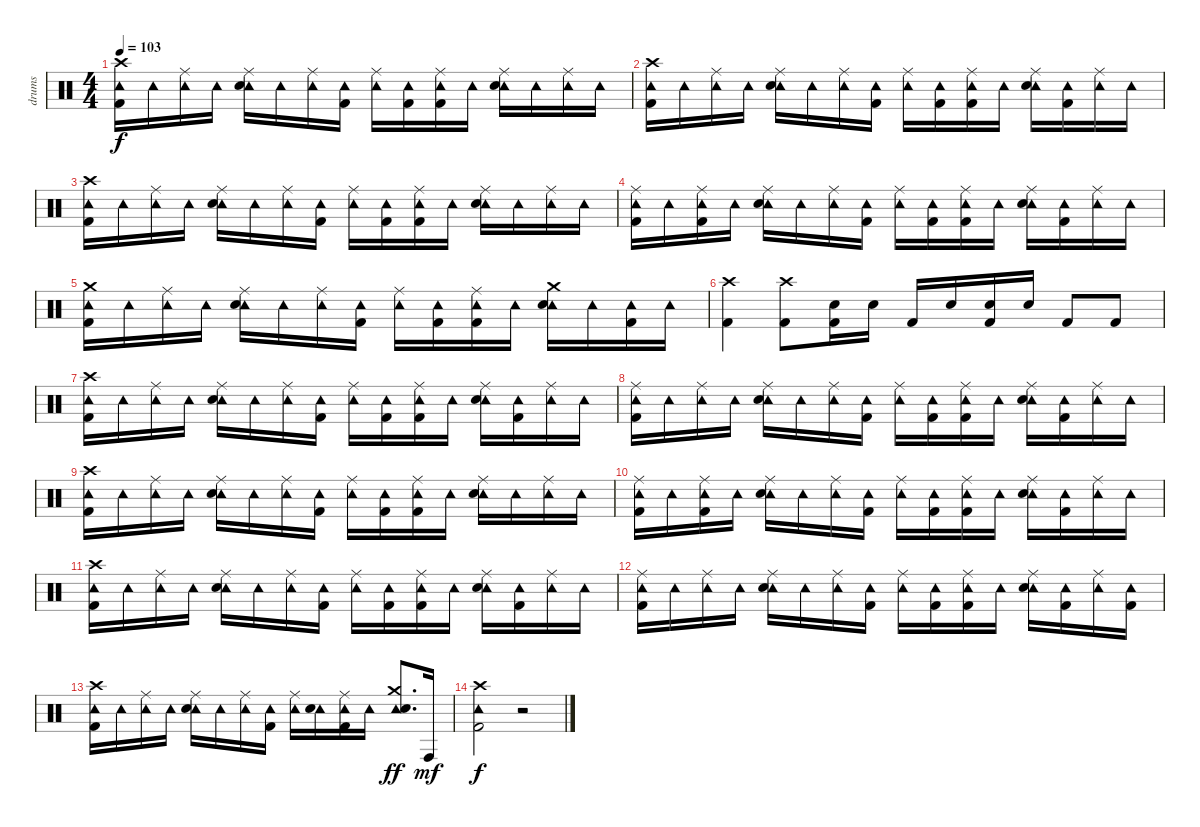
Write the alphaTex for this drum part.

\track ("drums" "drums") {instrument percussion}
\staff {score}
\articulation defaults
\ts (4 4)
\tempo 103
\clef neutral
\ks c
("Crash high (hit)" "Tambourine (hit)" "Kick (hit) 2").16{dy f} "Tambourine (hit)".16 ("Ride (middle)" "Tambourine (hit)").16 "Tambourine (hit)".16 ("Ride (middle)" "Tambourine (hit)" "Snare (hit) 2").16 "Tambourine (hit)".16 ("Ride (middle)" "Tambourine (hit)").16 ("Tambourine (hit)" "Kick (hit) 2").16 ("Ride (middle)" "Tambourine (hit)").16 ("Tambourine (hit)" "Kick (hit) 2").16 ("Ride (middle)" "Tambourine (hit)" "Kick (hit) 2").16 "Tambourine (hit)".16 ("Ride (middle)" "Tambourine (hit)" "Snare (hit) 2").16 "Tambourine (hit)".16 ("Ride (middle)" "Tambourine (hit)").16 "Tambourine (hit)".16 |
("Crash high (hit)" "Tambourine (hit)" "Kick (hit) 2").16 "Tambourine (hit)".16 ("Ride (middle)" "Tambourine (hit)").16 "Tambourine (hit)".16 ("Ride (middle)" "Tambourine (hit)" "Snare (hit) 2").16 "Tambourine (hit)".16 ("Ride (middle)" "Tambourine (hit)").16 ("Tambourine (hit)" "Kick (hit) 2").16 ("Ride (middle)" "Tambourine (hit)").16 ("Tambourine (hit)" "Kick (hit) 2").16 ("Ride (middle)" "Tambourine (hit)" "Kick (hit) 2").16 "Tambourine (hit)".16 ("Ride (middle)" "Tambourine (hit)" "Snare (hit) 2").16 ("Tambourine (hit)" "Kick (hit) 2").16 ("Ride (middle)" "Tambourine (hit)").16 "Tambourine (hit)".16 |
("Crash high (hit)" "Tambourine (hit)" "Kick (hit) 2").16 "Tambourine (hit)".16 ("Ride (middle)" "Tambourine (hit)").16 "Tambourine (hit)".16 ("Ride (middle)" "Tambourine (hit)" "Snare (hit) 2").16 "Tambourine (hit)".16 ("Ride (middle)" "Tambourine (hit)").16 ("Tambourine (hit)" "Kick (hit) 2").16 ("Ride (middle)" "Tambourine (hit)").16 ("Tambourine (hit)" "Kick (hit) 2").16 ("Ride (middle)" "Tambourine (hit)" "Kick (hit) 2").16 "Tambourine (hit)".16 ("Ride (middle)" "Tambourine (hit)" "Snare (hit) 2").16 "Tambourine (hit)".16 ("Ride (middle)" "Tambourine (hit)").16 "Tambourine (hit)".16 |
("Ride (middle)" "Tambourine (hit)" "Kick (hit) 2").16 "Tambourine (hit)".16 ("Ride (middle)" "Tambourine (hit)" "Kick (hit) 2").16 "Tambourine (hit)".16 ("Ride (middle)" "Tambourine (hit)" "Snare (hit) 2").16 "Tambourine (hit)".16 ("Ride (middle)" "Tambourine (hit)").16 ("Tambourine (hit)" "Kick (hit) 2").16 ("Ride (middle)" "Tambourine (hit)").16 ("Tambourine (hit)" "Kick (hit) 2").16 ("Ride (middle)" "Tambourine (hit)" "Kick (hit) 2").16 "Tambourine (hit)".16 ("Ride (middle)" "Tambourine (hit)" "Snare (hit) 2").16 ("Tambourine (hit)" "Kick (hit) 2").16 ("Ride (middle)" "Tambourine (hit)").16 "Tambourine (hit)".16 |
("Crash medium (hit)" "Tambourine (hit)" "Kick (hit) 2").16 "Tambourine (hit)".16 ("Ride (middle)" "Tambourine (hit)").16 "Tambourine (hit)".16 ("Ride (middle)" "Tambourine (hit)" "Snare (hit) 2").16 "Tambourine (hit)".16 ("Ride (middle)" "Tambourine (hit)").16 ("Tambourine (hit)" "Kick (hit) 2").16 ("Ride (middle)" "Tambourine (hit)").16 ("Tambourine (hit)" "Kick (hit) 2").16 ("Ride (middle)" "Tambourine (hit)" "Kick (hit) 2").16 "Tambourine (hit)".16 ("Crash medium (hit)" "Tambourine (hit)" "Snare (hit) 2").16 "Tambourine (hit)".16 ("Tambourine (hit)" "Kick (hit) 2").16 "Tambourine (hit)".16 |
("Crash high (hit)" "Kick (hit) 2").4 ("Crash high (hit)" "Kick (hit) 2").8 ("Snare (hit) 2" "Kick (hit) 2").16 "Snare (hit) 2".16 "Kick (hit) 2".16 "Snare (hit) 2".16 ("Snare (hit) 2" "Kick (hit) 2").16 "Snare (hit) 2".16 "Kick (hit) 2".8 "Kick (hit) 2".8 |
("Crash high (hit)" "Tambourine (hit)" "Kick (hit) 2").16 "Tambourine (hit)".16 ("Ride (middle)" "Tambourine (hit)").16 "Tambourine (hit)".16 ("Ride (middle)" "Tambourine (hit)" "Snare (hit) 2").16 "Tambourine (hit)".16 ("Ride (middle)" "Tambourine (hit)").16 ("Tambourine (hit)" "Kick (hit) 2").16 ("Ride (middle)" "Tambourine (hit)").16 ("Tambourine (hit)" "Kick (hit) 2").16 ("Ride (middle)" "Tambourine (hit)" "Kick (hit) 2").16 "Tambourine (hit)".16 ("Ride (middle)" "Tambourine (hit)" "Snare (hit) 2").16 ("Tambourine (hit)" "Kick (hit) 2").16 ("Ride (middle)" "Tambourine (hit)").16 "Tambourine (hit)".16 |
("Ride (middle)" "Tambourine (hit)" "Kick (hit) 2").16 "Tambourine (hit)".16 ("Ride (middle)" "Tambourine (hit)").16 "Tambourine (hit)".16 ("Ride (middle)" "Tambourine (hit)" "Snare (hit) 2").16 "Tambourine (hit)".16 ("Ride (middle)" "Tambourine (hit)").16 ("Tambourine (hit)" "Kick (hit) 2").16 ("Ride (middle)" "Tambourine (hit)").16 ("Tambourine (hit)" "Kick (hit) 2").16 ("Ride (middle)" "Tambourine (hit)" "Kick (hit) 2").16 "Tambourine (hit)".16 ("Ride (middle)" "Tambourine (hit)" "Snare (hit) 2").16 ("Tambourine (hit)" "Kick (hit) 2").16 ("Ride (middle)" "Tambourine (hit)").16 "Tambourine (hit)".16 |
("Crash high (hit)" "Tambourine (hit)" "Kick (hit) 2").16 "Tambourine (hit)".16 ("Ride (middle)" "Tambourine (hit)").16 "Tambourine (hit)".16 ("Ride (middle)" "Tambourine (hit)" "Snare (hit) 2").16 "Tambourine (hit)".16 ("Ride (middle)" "Tambourine (hit)").16 ("Tambourine (hit)" "Kick (hit) 2").16 ("Ride (middle)" "Tambourine (hit)").16 ("Tambourine (hit)" "Kick (hit) 2").16 ("Ride (middle)" "Tambourine (hit)" "Kick (hit) 2").16 "Tambourine (hit)".16 ("Ride (middle)" "Tambourine (hit)" "Snare (hit) 2").16 "Tambourine (hit)".16 ("Ride (middle)" "Tambourine (hit)").16 "Tambourine (hit)".16 |
("Ride (middle)" "Tambourine (hit)" "Kick (hit) 2").16 "Tambourine (hit)".16 ("Ride (middle)" "Tambourine (hit)" "Kick (hit) 2").16 "Tambourine (hit)".16 ("Ride (middle)" "Tambourine (hit)" "Snare (hit) 2").16 "Tambourine (hit)".16 ("Ride (middle)" "Tambourine (hit)").16 ("Tambourine (hit)" "Kick (hit) 2").16 ("Ride (middle)" "Tambourine (hit)").16 ("Tambourine (hit)" "Kick (hit) 2").16 ("Ride (middle)" "Tambourine (hit)" "Kick (hit) 2").16 "Tambourine (hit)".16 ("Ride (middle)" "Tambourine (hit)" "Snare (hit) 2").16 ("Tambourine (hit)" "Kick (hit) 2").16 ("Ride (middle)" "Tambourine (hit)").16 "Tambourine (hit)".16 |
("Crash high (hit)" "Tambourine (hit)" "Kick (hit) 2").16 "Tambourine (hit)".16 ("Ride (middle)" "Tambourine (hit)").16 "Tambourine (hit)".16 ("Ride (middle)" "Tambourine (hit)" "Snare (hit) 2").16 "Tambourine (hit)".16 ("Ride (middle)" "Tambourine (hit)").16 ("Tambourine (hit)" "Kick (hit) 2").16 ("Ride (middle)" "Tambourine (hit)").16 ("Tambourine (hit)" "Kick (hit) 2").16 ("Ride (middle)" "Tambourine (hit)" "Kick (hit) 2").16 "Tambourine (hit)".16 ("Ride (middle)" "Tambourine (hit)" "Snare (hit) 2").16 ("Tambourine (hit)" "Kick (hit) 2").16 ("Ride (middle)" "Tambourine (hit)").16 "Tambourine (hit)".16 |
("Ride (middle)" "Tambourine (hit)" "Kick (hit) 2").16 "Tambourine (hit)".16 ("Ride (middle)" "Tambourine (hit)").16 "Tambourine (hit)".16 ("Ride (middle)" "Tambourine (hit)" "Snare (hit) 2").16 "Tambourine (hit)".16 ("Ride (middle)" "Tambourine (hit)").16 ("Tambourine (hit)" "Kick (hit) 2").16 ("Ride (middle)" "Tambourine (hit)").16 ("Tambourine (hit)" "Kick (hit) 2").16 ("Ride (middle)" "Tambourine (hit)" "Kick (hit) 2").16 "Tambourine (hit)".16 ("Ride (middle)" "Tambourine (hit)" "Snare (hit) 2").16 ("Tambourine (hit)" "Kick (hit) 2").16 ("Ride (middle)" "Tambourine (hit)").16 ("Tambourine (hit)" "Kick (hit) 2").16 |
("Crash high (hit)" "Tambourine (hit)" "Kick (hit) 2").16 "Tambourine (hit)".16 ("Ride (middle)" "Tambourine (hit)").16 "Tambourine (hit)".16 ("Ride (middle)" "Tambourine (hit)" "Snare (hit) 2").16 "Tambourine (hit)".16 ("Ride (middle)" "Tambourine (hit)").16 ("Tambourine (hit)" "Kick (hit) 2").16 ("Ride (middle)" "Tambourine (hit)").16 ("Tambourine (hit)" "Snare (hit) 2").16 ("Ride (middle)" "Tambourine (hit)" "Kick (hit) 2").16 "Tambourine (hit)".16 ("Crash medium (hit)" "Tambourine (hit)" "Snare (hit) 2").8{d dy ff} "Conga high (hit)".16{dy mf} |
("Crash high (hit)" "Tambourine (hit)" "Kick (hit) 2").2{dy f} r.2
